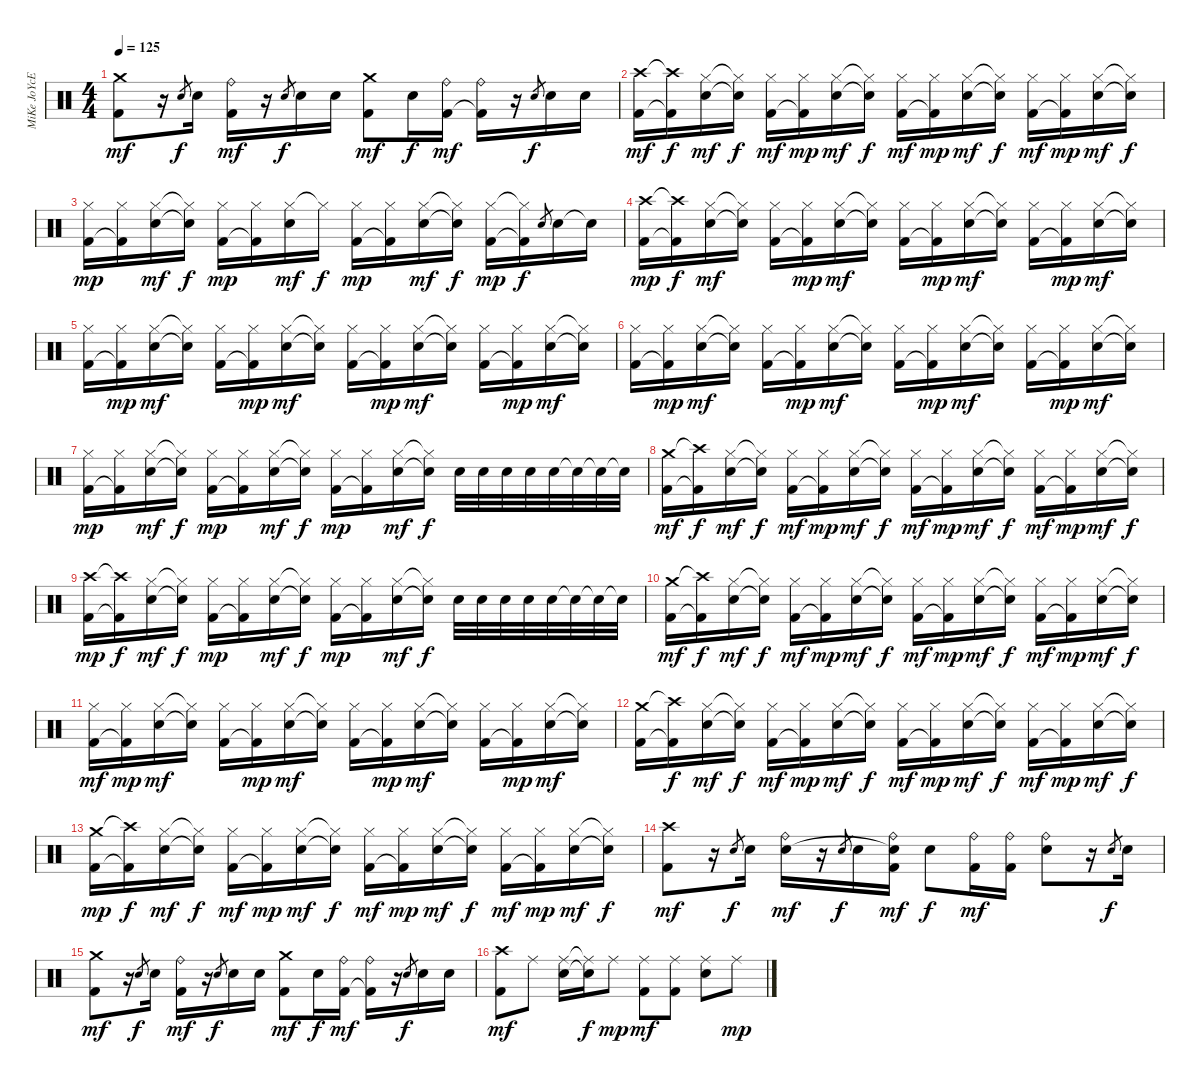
\track ("MiKe JoYcE" "MiKe JoYcE") {instrument percussion}
\staff {score}
\articulation defaults
\ts (4 4)
\tempo 125
\clef neutral
\ks c
("Crash medium (hit)" "Kick (hit) 2").8{dy mf} r.16 "Electric Snare (hit)".8{gr dy f} "Electric Snare (hit)".16 ("Ride (bell)" "Kick (hit) 2").16{dy mf} r.16 "Electric Snare (hit)".8{gr dy f} "Electric Snare (hit)".16 "Electric Snare (hit)".16 ("Crash medium (hit)" "Kick (hit) 2").8{dy mf} "Electric Snare (hit)".16{dy f} ("Ride (bell)" "Kick (hit) 2").16{dy mf} ("Ride (bell)" "Kick (hit) 2"{t}).16 r.16 "Electric Snare (hit)".8{gr dy f} "Electric Snare (hit)".16 "Electric Snare (hit)".16 |
("Crash high (hit)" "Kick (hit) 2").16{dy mf} ("Crash high (hit)"{t} "Kick (hit) 2"{t}).16{dy f} ("Hi-Hat (closed)" "Electric Snare (hit)").16{dy mf} ("Hi-Hat (closed)"{t} "Electric Snare (hit)"{t}).16{dy f} ("Hi-Hat (closed)" "Kick (hit) 2").16{dy mf} ("Hi-Hat (closed)" "Kick (hit) 2"{t}).16{dy mp} ("Hi-Hat (closed)" "Electric Snare (hit)").16{dy mf} ("Hi-Hat (closed)"{t} "Electric Snare (hit)"{t}).16{dy f} ("Hi-Hat (closed)" "Kick (hit) 2").16{dy mf} ("Hi-Hat (closed)" "Kick (hit) 2"{t}).16{dy mp} ("Hi-Hat (closed)" "Electric Snare (hit)").16{dy mf} ("Hi-Hat (closed)"{t} "Electric Snare (hit)"{t}).16{dy f} ("Hi-Hat (closed)" "Kick (hit) 2").16{dy mf} ("Hi-Hat (closed)" "Kick (hit) 2"{t}).16{dy mp} ("Hi-Hat (closed)" "Electric Snare (hit)").16{dy mf} ("Hi-Hat (closed)"{t} "Electric Snare (hit)"{t}).16{dy f} |
("Hi-Hat (closed)" "Kick (hit) 2").16{dy mp} ("Hi-Hat (closed)" "Kick (hit) 2"{t}).16 ("Hi-Hat (closed)" "Electric Snare (hit)").16{dy mf} ("Hi-Hat (closed)"{t} "Electric Snare (hit)"{t}).16{dy f} ("Hi-Hat (closed)" "Kick (hit) 2").16{dy mp} ("Hi-Hat (closed)" "Kick (hit) 2"{t}).16 ("Hi-Hat (closed)" "Electric Snare (hit)").16{dy mf} "Hi-Hat (closed)"{t}.16{dy f} ("Hi-Hat (closed)" "Kick (hit) 2").16{dy mp} ("Hi-Hat (closed)" "Kick (hit) 2"{t}).16 ("Hi-Hat (closed)" "Electric Snare (hit)").16{dy mf} ("Hi-Hat (closed)"{t} "Electric Snare (hit)"{t}).16{dy f} ("Hi-Hat (closed)" "Kick (hit) 2").16{dy mp} ("Hi-Hat (closed)"{t} "Kick (hit) 2"{t}).16{dy f} "Electric Snare (hit)".8{gr} "Electric Snare (hit)".16 "Electric Snare (hit)"{t}.16 |
("Crash high (hit)" "Kick (hit) 2").16{dy mp} ("Crash high (hit)"{t} "Kick (hit) 2"{t}).16{dy f} ("Hi-Hat (closed)" "Electric Snare (hit)").16{dy mf} ("Hi-Hat (closed)"{t} "Electric Snare (hit)"{t}).16 ("Hi-Hat (closed)" "Kick (hit) 2").16 ("Hi-Hat (closed)" "Kick (hit) 2"{t}).16{dy mp} ("Hi-Hat (closed)" "Electric Snare (hit)").16{dy mf} ("Hi-Hat (closed)"{t} "Electric Snare (hit)"{t}).16 ("Hi-Hat (closed)" "Kick (hit) 2").16 ("Hi-Hat (closed)" "Kick (hit) 2"{t}).16{dy mp} ("Hi-Hat (closed)" "Electric Snare (hit)").16{dy mf} ("Hi-Hat (closed)"{t} "Electric Snare (hit)"{t}).16 ("Hi-Hat (closed)" "Kick (hit) 2").16 ("Hi-Hat (closed)" "Kick (hit) 2"{t}).16{dy mp} ("Hi-Hat (closed)" "Electric Snare (hit)").16{dy mf} ("Hi-Hat (closed)"{t} "Electric Snare (hit)"{t}).16 |
("Hi-Hat (closed)" "Kick (hit) 2").16 ("Hi-Hat (closed)" "Kick (hit) 2"{t}).16{dy mp} ("Hi-Hat (closed)" "Electric Snare (hit)").16{dy mf} ("Hi-Hat (closed)"{t} "Electric Snare (hit)"{t}).16 ("Hi-Hat (closed)" "Kick (hit) 2").16 ("Hi-Hat (closed)" "Kick (hit) 2"{t}).16{dy mp} ("Hi-Hat (closed)" "Electric Snare (hit)").16{dy mf} ("Hi-Hat (closed)"{t} "Electric Snare (hit)"{t}).16 ("Hi-Hat (closed)" "Kick (hit) 2").16 ("Hi-Hat (closed)" "Kick (hit) 2"{t}).16{dy mp} ("Hi-Hat (closed)" "Electric Snare (hit)").16{dy mf} ("Hi-Hat (closed)"{t} "Electric Snare (hit)"{t}).16 ("Hi-Hat (closed)" "Kick (hit) 2").16 ("Hi-Hat (closed)" "Kick (hit) 2"{t}).16{dy mp} ("Hi-Hat (closed)" "Electric Snare (hit)").16{dy mf} ("Hi-Hat (closed)"{t} "Electric Snare (hit)"{t}).16 |
("Hi-Hat (closed)" "Kick (hit) 2").16 ("Hi-Hat (closed)" "Kick (hit) 2"{t}).16{dy mp} ("Hi-Hat (closed)" "Electric Snare (hit)").16{dy mf} ("Hi-Hat (closed)"{t} "Electric Snare (hit)"{t}).16 ("Hi-Hat (closed)" "Kick (hit) 2").16 ("Hi-Hat (closed)" "Kick (hit) 2"{t}).16{dy mp} ("Hi-Hat (closed)" "Electric Snare (hit)").16{dy mf} ("Hi-Hat (closed)"{t} "Electric Snare (hit)"{t}).16 ("Hi-Hat (closed)" "Kick (hit) 2").16 ("Hi-Hat (closed)" "Kick (hit) 2"{t}).16{dy mp} ("Hi-Hat (closed)" "Electric Snare (hit)").16{dy mf} ("Hi-Hat (closed)"{t} "Electric Snare (hit)"{t}).16 ("Hi-Hat (closed)" "Kick (hit) 2").16 ("Hi-Hat (closed)" "Kick (hit) 2"{t}).16{dy mp} ("Hi-Hat (closed)" "Electric Snare (hit)").16{dy mf} ("Hi-Hat (closed)"{t} "Electric Snare (hit)"{t}).16 |
("Hi-Hat (closed)" "Kick (hit) 2").16{dy mp} ("Hi-Hat (closed)" "Kick (hit) 2"{t}).16 ("Hi-Hat (closed)" "Electric Snare (hit)").16{dy mf} ("Hi-Hat (closed)"{t} "Electric Snare (hit)"{t}).16{dy f} ("Hi-Hat (closed)" "Kick (hit) 2").16{dy mp} ("Hi-Hat (closed)" "Kick (hit) 2"{t}).16 ("Hi-Hat (closed)" "Electric Snare (hit)").16{dy mf} ("Hi-Hat (closed)"{t} "Electric Snare (hit)"{t}).16{dy f} ("Hi-Hat (closed)" "Kick (hit) 2").16{dy mp} ("Hi-Hat (closed)" "Kick (hit) 2"{t}).16 ("Hi-Hat (closed)" "Electric Snare (hit)").16{dy mf} ("Hi-Hat (closed)"{t} "Electric Snare (hit)"{t}).16{dy f} "Electric Snare (hit)".32 "Electric Snare (hit)".32 "Electric Snare (hit)".32 "Electric Snare (hit)".32 "Electric Snare (hit)".32 "Electric Snare (hit)"{t}.32 "Electric Snare (hit)"{t}.32 "Electric Snare (hit)"{t}.32 |
("Crash medium (hit)" "Kick (hit) 2").16{dy mf} ("Crash high (hit)"{t} "Kick (hit) 2"{t}).16{dy f} ("Hi-Hat (closed)" "Electric Snare (hit)").16{dy mf} ("Hi-Hat (closed)"{t} "Electric Snare (hit)"{t}).16{dy f} ("Hi-Hat (closed)" "Kick (hit) 2").16{dy mf} ("Hi-Hat (closed)" "Kick (hit) 2"{t}).16{dy mp} ("Hi-Hat (closed)" "Electric Snare (hit)").16{dy mf} ("Hi-Hat (closed)"{t} "Electric Snare (hit)"{t}).16{dy f} ("Hi-Hat (closed)" "Kick (hit) 2").16{dy mf} ("Hi-Hat (closed)" "Kick (hit) 2"{t}).16{dy mp} ("Hi-Hat (closed)" "Electric Snare (hit)").16{dy mf} ("Hi-Hat (closed)"{t} "Electric Snare (hit)"{t}).16{dy f} ("Hi-Hat (closed)" "Kick (hit) 2").16{dy mf} ("Hi-Hat (closed)" "Kick (hit) 2"{t}).16{dy mp} ("Hi-Hat (closed)" "Electric Snare (hit)").16{dy mf} ("Hi-Hat (closed)"{t} "Electric Snare (hit)"{t}).16{dy f} |
("Crash high (hit)" "Kick (hit) 2").16{dy mp} ("Crash high (hit)"{t} "Kick (hit) 2"{t}).16{dy f} ("Hi-Hat (closed)" "Electric Snare (hit)").16{dy mf} ("Hi-Hat (closed)"{t} "Electric Snare (hit)"{t}).16{dy f} ("Hi-Hat (closed)" "Kick (hit) 2").16{dy mp} ("Hi-Hat (closed)" "Kick (hit) 2"{t}).16 ("Hi-Hat (closed)" "Electric Snare (hit)").16{dy mf} ("Hi-Hat (closed)"{t} "Electric Snare (hit)"{t}).16{dy f} ("Hi-Hat (closed)" "Kick (hit) 2").16{dy mp} ("Hi-Hat (closed)" "Kick (hit) 2"{t}).16 ("Hi-Hat (closed)" "Electric Snare (hit)").16{dy mf} ("Hi-Hat (closed)"{t} "Electric Snare (hit)"{t}).16{dy f} "Electric Snare (hit)".32 "Electric Snare (hit)".32 "Electric Snare (hit)".32 "Electric Snare (hit)".32 "Electric Snare (hit)".32 "Electric Snare (hit)"{t}.32 "Electric Snare (hit)"{t}.32 "Electric Snare (hit)"{t}.32 |
("Crash medium (hit)" "Kick (hit) 2").16{dy mf} ("Crash high (hit)"{t} "Kick (hit) 2"{t}).16{dy f} ("Hi-Hat (closed)" "Electric Snare (hit)").16{dy mf} ("Hi-Hat (closed)"{t} "Electric Snare (hit)"{t}).16{dy f} ("Hi-Hat (closed)" "Kick (hit) 2").16{dy mf} ("Hi-Hat (closed)" "Kick (hit) 2"{t}).16{dy mp} ("Hi-Hat (closed)" "Electric Snare (hit)").16{dy mf} ("Hi-Hat (closed)"{t} "Electric Snare (hit)"{t}).16{dy f} ("Hi-Hat (closed)" "Kick (hit) 2").16{dy mf} ("Hi-Hat (closed)" "Kick (hit) 2"{t}).16{dy mp} ("Hi-Hat (closed)" "Electric Snare (hit)").16{dy mf} ("Hi-Hat (closed)"{t} "Electric Snare (hit)"{t}).16{dy f} ("Hi-Hat (closed)" "Kick (hit) 2").16{dy mf} ("Hi-Hat (closed)" "Kick (hit) 2"{t}).16{dy mp} ("Hi-Hat (closed)" "Electric Snare (hit)").16{dy mf} ("Hi-Hat (closed)"{t} "Electric Snare (hit)"{t}).16{dy f} |
("Hi-Hat (closed)" "Kick (hit) 2").16{dy mf} ("Hi-Hat (closed)" "Kick (hit) 2"{t}).16{dy mp} ("Hi-Hat (closed)" "Electric Snare (hit)").16{dy mf} ("Hi-Hat (closed)"{t} "Electric Snare (hit)"{t}).16 ("Hi-Hat (closed)" "Kick (hit) 2").16 ("Hi-Hat (closed)" "Kick (hit) 2"{t}).16{dy mp} ("Hi-Hat (closed)" "Electric Snare (hit)").16{dy mf} ("Hi-Hat (closed)"{t} "Electric Snare (hit)"{t}).16 ("Hi-Hat (closed)" "Kick (hit) 2").16 ("Hi-Hat (closed)" "Kick (hit) 2"{t}).16{dy mp} ("Hi-Hat (closed)" "Electric Snare (hit)").16{dy mf} ("Hi-Hat (closed)"{t} "Electric Snare (hit)"{t}).16 ("Hi-Hat (closed)" "Kick (hit) 2").16 ("Hi-Hat (closed)" "Kick (hit) 2"{t}).16{dy mp} ("Hi-Hat (closed)" "Electric Snare (hit)").16{dy mf} ("Hi-Hat (closed)"{t} "Electric Snare (hit)"{t}).16 |
("Crash medium (hit)" "Kick (hit) 2").16 ("Crash high (hit)"{t} "Kick (hit) 2"{t}).16{dy f} ("Hi-Hat (closed)" "Electric Snare (hit)").16{dy mf} ("Hi-Hat (closed)"{t} "Electric Snare (hit)"{t}).16{dy f} ("Hi-Hat (closed)" "Kick (hit) 2").16{dy mf} ("Hi-Hat (closed)" "Kick (hit) 2"{t}).16{dy mp} ("Hi-Hat (closed)" "Electric Snare (hit)").16{dy mf} ("Hi-Hat (closed)"{t} "Electric Snare (hit)"{t}).16{dy f} ("Hi-Hat (closed)" "Kick (hit) 2").16{dy mf} ("Hi-Hat (closed)" "Kick (hit) 2"{t}).16{dy mp} ("Hi-Hat (closed)" "Electric Snare (hit)").16{dy mf} ("Hi-Hat (closed)"{t} "Electric Snare (hit)"{t}).16{dy f} ("Hi-Hat (closed)" "Kick (hit) 2").16{dy mf} ("Hi-Hat (closed)" "Kick (hit) 2"{t}).16{dy mp} ("Hi-Hat (closed)" "Electric Snare (hit)").16{dy mf} ("Hi-Hat (closed)"{t} "Electric Snare (hit)"{t}).16{dy f} |
("Crash medium (hit)" "Kick (hit) 2").16{dy mp} ("Crash high (hit)"{t} "Kick (hit) 2"{t}).16{dy f} ("Hi-Hat (closed)" "Electric Snare (hit)").16{dy mf} ("Hi-Hat (closed)"{t} "Electric Snare (hit)"{t}).16{dy f} ("Hi-Hat (closed)" "Kick (hit) 2").16{dy mf} ("Hi-Hat (closed)" "Kick (hit) 2"{t}).16{dy mp} ("Hi-Hat (closed)" "Electric Snare (hit)").16{dy mf} ("Hi-Hat (closed)"{t} "Electric Snare (hit)"{t}).16{dy f} ("Hi-Hat (closed)" "Kick (hit) 2").16{dy mf} ("Hi-Hat (closed)" "Kick (hit) 2"{t}).16{dy mp} ("Hi-Hat (closed)" "Electric Snare (hit)").16{dy mf} ("Hi-Hat (closed)"{t} "Electric Snare (hit)"{t}).16{dy f} ("Hi-Hat (closed)" "Kick (hit) 2").16{dy mf} ("Hi-Hat (closed)" "Kick (hit) 2"{t}).16{dy mp} ("Hi-Hat (closed)" "Electric Snare (hit)").16{dy mf} ("Hi-Hat (closed)"{t} "Electric Snare (hit)"{t}).16{dy f} |
("Crash high (hit)" "Kick (hit) 2").8{dy mf} r.16 "Electric Snare (hit)".8{gr dy f} "Electric Snare (hit)".16 ("Ride (bell)" "Electric Snare (hit)").16{dy mf} r.16 "Electric Snare (hit)".8{gr dy f} "Electric Snare (hit)".16 ("Ride (bell)" "Electric Snare (hit)"{t} "Kick (hit) 2").16{dy mf} "Electric Snare (hit)".8{dy f} ("Ride (bell)" "Kick (hit) 2").16{dy mf} ("Ride (bell)" "Kick (hit) 2").16 ("Ride (bell)" "Electric Snare (hit)").8 r.16 "Electric Snare (hit)".8{gr dy f} "Electric Snare (hit)".16 |
("Crash medium (hit)" "Kick (hit) 2").8{dy mf} r.16 "Electric Snare (hit)".8{gr dy f} "Electric Snare (hit)".16 ("Ride (bell)" "Kick (hit) 2").16{dy mf} r.16 "Electric Snare (hit)".8{gr dy f} "Electric Snare (hit)".16 "Electric Snare (hit)".16 ("Crash medium (hit)" "Kick (hit) 2").8{dy mf} "Electric Snare (hit)".16{dy f} ("Ride (bell)" "Kick (hit) 2").16{dy mf} ("Ride (bell)" "Kick (hit) 2"{t}).16 r.16 "Electric Snare (hit)".8{gr dy f} "Electric Snare (hit)".16 "Electric Snare (hit)".16 |
("Crash high (hit)" "Kick (hit) 2").8{dy mf} "Ride (middle)".8 ("Ride (middle)" "Electric Snare (hit)").16 ("Ride (middle)"{t} "Electric Snare (hit)"{t}).16{dy f} "Ride (middle)".8{dy mp} ("Ride (middle)" "Kick (hit) 2").8{dy mf} ("Ride (middle)" "Kick (hit) 2").8 ("Ride (middle)" "Electric Snare (hit)").8 "Ride (middle)".8{dy mp}
